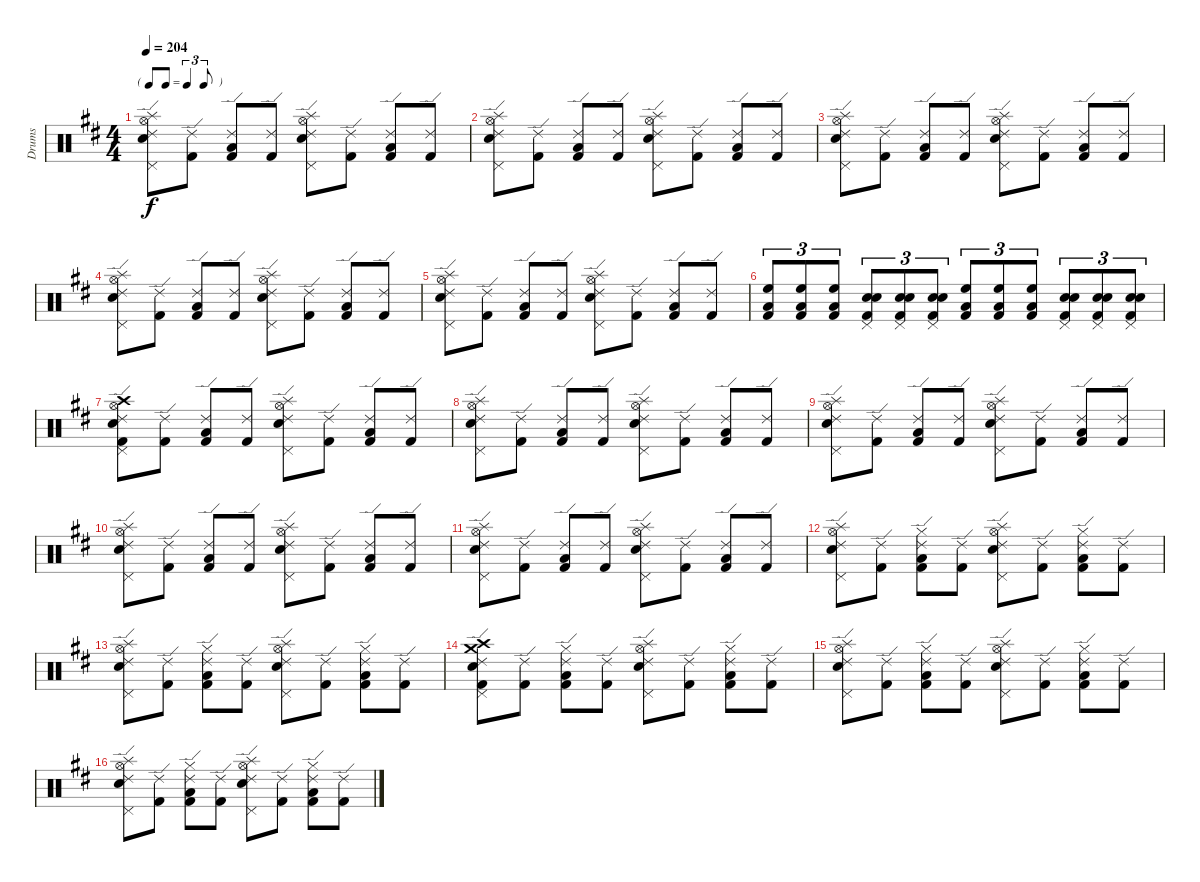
\track ("Drums" "Drums") {instrument percussion}
\staff {score}
\articulation defaults
\ts (4 4)
\tf triplet8th
\tempo 204
\clef neutral
\ks d
("Hi-Hat (open)" "Splash (hit)" "Snare (hit) 2" "Ride (edge) 2" "Pedal Hi-Hat (hit)").8{dy f} ("Kick (hit) 2" "Ride (edge) 2").8 ("Low Floor Tom (hit)" "Ride (edge) 2" "Kick (hit) 2").8 ("Kick (hit) 2" "Ride (edge) 2").8 ("Hi-Hat (open)" "Splash (hit)" "Snare (hit) 2" "Ride (edge) 2" "Pedal Hi-Hat (hit)").8 ("Kick (hit) 2" "Ride (edge) 2").8 ("Low Floor Tom (hit)" "Ride (edge) 2" "Kick (hit) 2").8 ("Kick (hit) 2" "Ride (edge) 2").8 |
("Hi-Hat (open)" "Splash (hit)" "Snare (hit) 2" "Ride (edge) 2" "Pedal Hi-Hat (hit)").8 ("Kick (hit) 2" "Ride (edge) 2").8 ("Low Floor Tom (hit)" "Ride (edge) 2" "Kick (hit) 2").8 ("Kick (hit) 2" "Ride (edge) 2").8 ("Hi-Hat (open)" "Splash (hit)" "Snare (hit) 2" "Ride (edge) 2" "Pedal Hi-Hat (hit)").8 ("Kick (hit) 2" "Ride (edge) 2").8 ("Low Floor Tom (hit)" "Ride (edge) 2" "Kick (hit) 2").8 ("Kick (hit) 2" "Ride (edge) 2").8 |
("Hi-Hat (open)" "Splash (hit)" "Snare (hit) 2" "Ride (edge) 2" "Pedal Hi-Hat (hit)").8 ("Kick (hit) 2" "Ride (edge) 2").8 ("Low Floor Tom (hit)" "Ride (edge) 2" "Kick (hit) 2").8 ("Kick (hit) 2" "Ride (edge) 2").8 ("Hi-Hat (open)" "Splash (hit)" "Snare (hit) 2" "Ride (edge) 2" "Pedal Hi-Hat (hit)").8 ("Kick (hit) 2" "Ride (edge) 2").8 ("Low Floor Tom (hit)" "Ride (edge) 2" "Kick (hit) 2").8 ("Kick (hit) 2" "Ride (edge) 2").8 |
("Hi-Hat (open)" "Splash (hit)" "Snare (hit) 2" "Ride (edge) 2" "Pedal Hi-Hat (hit)").8 ("Kick (hit) 2" "Ride (edge) 2").8 ("Low Floor Tom (hit)" "Ride (edge) 2" "Kick (hit) 2").8 ("Kick (hit) 2" "Ride (edge) 2").8 ("Hi-Hat (open)" "Splash (hit)" "Snare (hit) 2" "Ride (edge) 2" "Pedal Hi-Hat (hit)").8 ("Kick (hit) 2" "Ride (edge) 2").8 ("Low Floor Tom (hit)" "Ride (edge) 2" "Kick (hit) 2").8 ("Kick (hit) 2" "Ride (edge) 2").8 |
("Hi-Hat (open)" "Splash (hit)" "Snare (hit) 2" "Ride (edge) 2" "Pedal Hi-Hat (hit)").8 ("Kick (hit) 2" "Ride (edge) 2").8 ("Low Floor Tom (hit)" "Ride (edge) 2" "Kick (hit) 2").8 ("Kick (hit) 2" "Ride (edge) 2").8 ("Hi-Hat (open)" "Splash (hit)" "Snare (hit) 2" "Ride (edge) 2" "Pedal Hi-Hat (hit)").8 ("Kick (hit) 2" "Ride (edge) 2").8 ("Low Floor Tom (hit)" "Ride (edge) 2" "Kick (hit) 2").8 ("Kick (hit) 2" "Ride (edge) 2").8 |
("High Floor Tom (hit)" "Kick (hit) 2" "Low Tom (hit)").8{tu (3 2)} ("High Floor Tom (hit)" "Kick (hit) 2" "Low Tom (hit)").8{tu (3 2)} ("High Floor Tom (hit)" "Kick (hit) 2" "Low Tom (hit)").8{tu (3 2)} ("Kick (hit) 2" "Snare (hit) 2" "Snare (hit) 2" "Pedal Hi-Hat (hit)").8{tu (3 2)} ("Kick (hit) 2" "Snare (hit) 2" "Snare (hit) 2" "Pedal Hi-Hat (hit)").8{tu (3 2)} ("Kick (hit) 2" "Snare (hit) 2" "Snare (hit) 2" "Pedal Hi-Hat (hit)").8{tu (3 2)} ("High Floor Tom (hit)" "Kick (hit) 2" "Low Tom (hit)").8{tu (3 2)} ("High Floor Tom (hit)" "Kick (hit) 2" "Low Tom (hit)").8{tu (3 2)} ("High Floor Tom (hit)" "Kick (hit) 2" "Low Tom (hit)").8{tu (3 2)} ("Kick (hit) 2" "Snare (hit) 2" "Snare (hit) 2" "Pedal Hi-Hat (hit)").8{tu (3 2)} ("Kick (hit) 2" "Snare (hit) 2" "Snare (hit) 2" "Pedal Hi-Hat (hit)").8{tu (3 2)} ("Kick (hit) 2" "Snare (hit) 2" "Snare (hit) 2" "Pedal Hi-Hat (hit)").8{tu (3 2)} |
("Ride (edge) 2" "Hi-Hat (open)" "Crash high (hit)" "Snare (hit) 2" "Kick (hit) 2" "Pedal Hi-Hat (hit)").8 ("Kick (hit) 2" "Ride (edge) 2").8 ("Low Floor Tom (hit)" "Ride (edge) 2" "Kick (hit) 2").8 ("Kick (hit) 2" "Ride (edge) 2").8 ("Hi-Hat (open)" "Splash (hit)" "Snare (hit) 2" "Ride (edge) 2" "Pedal Hi-Hat (hit)").8 ("Kick (hit) 2" "Ride (edge) 2").8 ("Low Floor Tom (hit)" "Ride (edge) 2" "Kick (hit) 2").8 ("Kick (hit) 2" "Ride (edge) 2").8 |
("Hi-Hat (open)" "Splash (hit)" "Snare (hit) 2" "Ride (edge) 2" "Pedal Hi-Hat (hit)").8 ("Kick (hit) 2" "Ride (edge) 2").8 ("Low Floor Tom (hit)" "Ride (edge) 2" "Kick (hit) 2").8 ("Kick (hit) 2" "Ride (edge) 2").8 ("Hi-Hat (open)" "Splash (hit)" "Snare (hit) 2" "Ride (edge) 2" "Pedal Hi-Hat (hit)").8 ("Kick (hit) 2" "Ride (edge) 2").8 ("Low Floor Tom (hit)" "Ride (edge) 2" "Kick (hit) 2").8 ("Kick (hit) 2" "Ride (edge) 2").8 |
("Hi-Hat (open)" "Splash (hit)" "Snare (hit) 2" "Ride (edge) 2" "Pedal Hi-Hat (hit)").8 ("Kick (hit) 2" "Ride (edge) 2").8 ("Low Floor Tom (hit)" "Ride (edge) 2" "Kick (hit) 2").8 ("Kick (hit) 2" "Ride (edge) 2").8 ("Hi-Hat (open)" "Splash (hit)" "Snare (hit) 2" "Ride (edge) 2" "Pedal Hi-Hat (hit)").8 ("Kick (hit) 2" "Ride (edge) 2").8 ("Low Floor Tom (hit)" "Ride (edge) 2" "Kick (hit) 2").8 ("Kick (hit) 2" "Ride (edge) 2").8 |
("Hi-Hat (open)" "Splash (hit)" "Snare (hit) 2" "Ride (edge) 2" "Pedal Hi-Hat (hit)").8 ("Kick (hit) 2" "Ride (edge) 2").8 ("Low Floor Tom (hit)" "Ride (edge) 2" "Kick (hit) 2").8 ("Kick (hit) 2" "Ride (edge) 2").8 ("Hi-Hat (open)" "Splash (hit)" "Snare (hit) 2" "Ride (edge) 2" "Pedal Hi-Hat (hit)").8 ("Kick (hit) 2" "Ride (edge) 2").8 ("Low Floor Tom (hit)" "Ride (edge) 2" "Kick (hit) 2").8 ("Kick (hit) 2" "Ride (edge) 2").8 |
("Hi-Hat (open)" "Splash (hit)" "Snare (hit) 2" "Ride (edge) 2" "Pedal Hi-Hat (hit)").8 ("Kick (hit) 2" "Ride (edge) 2").8 ("Low Floor Tom (hit)" "Ride (edge) 2" "Kick (hit) 2").8 ("Kick (hit) 2" "Ride (edge) 2").8 ("Hi-Hat (open)" "Splash (hit)" "Snare (hit) 2" "Ride (edge) 2" "Pedal Hi-Hat (hit)").8 ("Kick (hit) 2" "Ride (edge) 2").8 ("Low Floor Tom (hit)" "Ride (edge) 2" "Kick (hit) 2").8 ("Kick (hit) 2" "Ride (edge) 2").8 |
("Hi-Hat (open)" "Splash (hit)" "Snare (hit) 2" "Ride (edge) 2" "Pedal Hi-Hat (hit)").8 ("Kick (hit) 2" "Ride (edge) 2").8 ("Hi-Hat (closed)" "Low Floor Tom (hit)" "Ride (edge) 2" "Kick (hit) 2").8 ("Kick (hit) 2" "Ride (edge) 2").8 ("Hi-Hat (open)" "Splash (hit)" "Snare (hit) 2" "Ride (edge) 2" "Pedal Hi-Hat (hit)").8 ("Kick (hit) 2" "Ride (edge) 2").8 ("Hi-Hat (closed)" "Low Floor Tom (hit)" "Ride (edge) 2" "Kick (hit) 2").8 ("Kick (hit) 2" "Ride (edge) 2").8 |
("Hi-Hat (open)" "Splash (hit)" "Snare (hit) 2" "Ride (edge) 2" "Pedal Hi-Hat (hit)").8 ("Kick (hit) 2" "Ride (edge) 2").8 ("Hi-Hat (closed)" "Low Floor Tom (hit)" "Ride (edge) 2" "Kick (hit) 2").8 ("Kick (hit) 2" "Ride (edge) 2").8 ("Hi-Hat (open)" "Splash (hit)" "Snare (hit) 2" "Ride (edge) 2" "Pedal Hi-Hat (hit)").8 ("Kick (hit) 2" "Ride (edge) 2").8 ("Hi-Hat (closed)" "Low Floor Tom (hit)" "Ride (edge) 2" "Kick (hit) 2").8 ("Kick (hit) 2" "Ride (edge) 2").8 |
("Ride (edge) 2" "Crash medium (hit)" "Crash high (hit)" "Snare (hit) 2" "Kick (hit) 2" "Pedal Hi-Hat (hit)").8 ("Kick (hit) 2" "Ride (edge) 2").8 ("Hi-Hat (closed)" "Low Floor Tom (hit)" "Ride (edge) 2" "Kick (hit) 2").8 ("Kick (hit) 2" "Ride (edge) 2").8 ("Hi-Hat (open)" "Splash (hit)" "Snare (hit) 2" "Ride (edge) 2" "Pedal Hi-Hat (hit)").8 ("Kick (hit) 2" "Ride (edge) 2").8 ("Hi-Hat (closed)" "Low Floor Tom (hit)" "Ride (edge) 2" "Kick (hit) 2").8 ("Kick (hit) 2" "Ride (edge) 2").8 |
("Hi-Hat (open)" "Splash (hit)" "Snare (hit) 2" "Ride (edge) 2" "Pedal Hi-Hat (hit)").8 ("Kick (hit) 2" "Ride (edge) 2").8 ("Hi-Hat (closed)" "Low Floor Tom (hit)" "Ride (edge) 2" "Kick (hit) 2").8 ("Kick (hit) 2" "Ride (edge) 2").8 ("Hi-Hat (open)" "Splash (hit)" "Snare (hit) 2" "Ride (edge) 2" "Pedal Hi-Hat (hit)").8 ("Kick (hit) 2" "Ride (edge) 2").8 ("Hi-Hat (closed)" "Low Floor Tom (hit)" "Ride (edge) 2" "Kick (hit) 2").8 ("Kick (hit) 2" "Ride (edge) 2").8 |
("Hi-Hat (open)" "Splash (hit)" "Snare (hit) 2" "Ride (edge) 2" "Pedal Hi-Hat (hit)").8 ("Kick (hit) 2" "Ride (edge) 2").8 ("Hi-Hat (closed)" "Low Floor Tom (hit)" "Ride (edge) 2" "Kick (hit) 2").8 ("Kick (hit) 2" "Ride (edge) 2").8 ("Hi-Hat (open)" "Splash (hit)" "Snare (hit) 2" "Ride (edge) 2" "Pedal Hi-Hat (hit)").8 ("Kick (hit) 2" "Ride (edge) 2").8 ("Hi-Hat (closed)" "Low Floor Tom (hit)" "Ride (edge) 2" "Kick (hit) 2").8 ("Kick (hit) 2" "Ride (edge) 2").8
